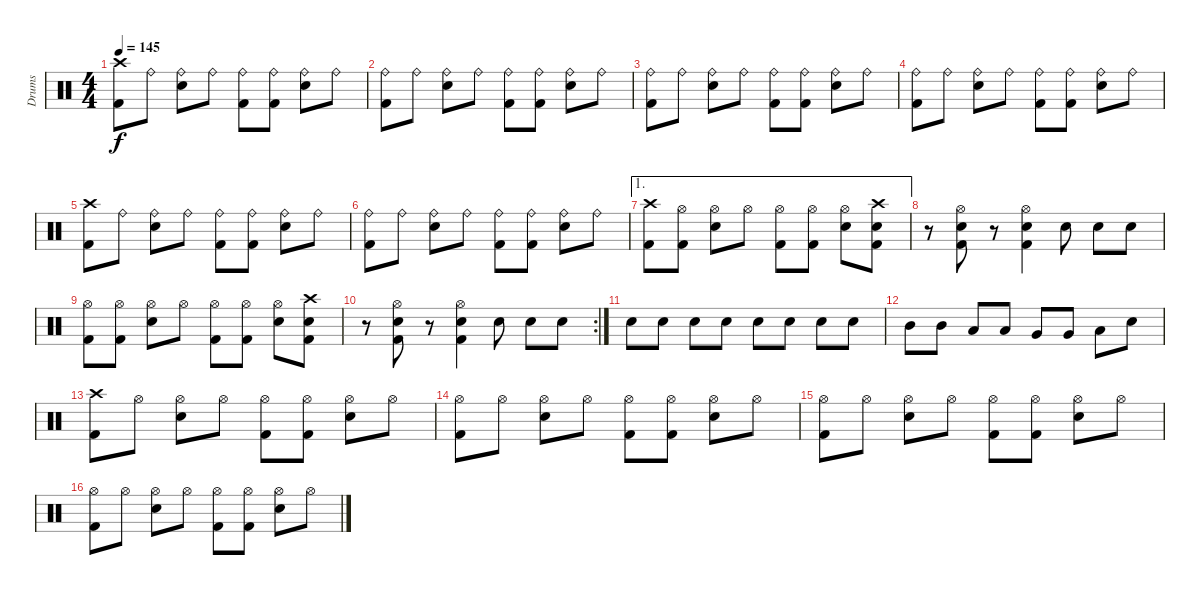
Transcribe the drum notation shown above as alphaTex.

\track ("Drums" "Drums") {instrument percussion}
\staff {score}
\articulation defaults
\ts (4 4)
\tempo 145
\clef neutral
\ks c
("Crash high (hit)" "Kick (hit) 2").8{dy f} "Ride (bell)".8 ("Ride (bell)" "Electric Snare (hit)").8 "Ride (bell)".8 ("Ride (bell)" "Kick (hit) 2").8 ("Ride (bell)" "Kick (hit) 2").8 ("Ride (bell)" "Electric Snare (hit)").8 "Ride (bell)".8 |
("Ride (bell)" "Kick (hit) 2").8 "Ride (bell)".8 ("Ride (bell)" "Electric Snare (hit)").8 "Ride (bell)".8 ("Ride (bell)" "Kick (hit) 2").8 ("Ride (bell)" "Kick (hit) 2").8 ("Ride (bell)" "Electric Snare (hit)").8 "Ride (bell)".8 |
("Ride (bell)" "Kick (hit) 2").8 "Ride (bell)".8 ("Ride (bell)" "Electric Snare (hit)").8 "Ride (bell)".8 ("Ride (bell)" "Kick (hit) 2").8 ("Ride (bell)" "Kick (hit) 2").8 ("Ride (bell)" "Electric Snare (hit)").8 "Ride (bell)".8 |
("Ride (bell)" "Kick (hit) 2").8 "Ride (bell)".8 ("Ride (bell)" "Electric Snare (hit)").8 "Ride (bell)".8 ("Ride (bell)" "Kick (hit) 2").8 ("Ride (bell)" "Kick (hit) 2").8 ("Ride (bell)" "Electric Snare (hit)").8 "Ride (bell)".8 |
("Crash high (hit)" "Kick (hit) 2").8 "Ride (bell)".8 ("Ride (bell)" "Electric Snare (hit)").8 "Ride (bell)".8 ("Ride (bell)" "Kick (hit) 2").8 ("Ride (bell)" "Kick (hit) 2").8 ("Ride (bell)" "Electric Snare (hit)").8 "Ride (bell)".8 |
("Ride (bell)" "Kick (hit) 2").8 "Ride (bell)".8 ("Ride (bell)" "Electric Snare (hit)").8 "Ride (bell)".8 ("Ride (bell)" "Kick (hit) 2").8 ("Ride (bell)" "Kick (hit) 2").8 ("Ride (bell)" "Electric Snare (hit)").8 "Ride (bell)".8 |
\ae 1
("Crash high (hit)" "Kick (hit) 2").8 ("Hi-Hat (open)" "Kick (hit) 2").8 ("Hi-Hat (open)" "Electric Snare (hit)").8 "Hi-Hat (open)".8 ("Hi-Hat (open)" "Kick (hit) 2").8 ("Hi-Hat (open)" "Kick (hit) 2").8 ("Hi-Hat (open)" "Electric Snare (hit)").8 ("Crash high (hit)" "Electric Snare (hit)" "Kick (hit) 2").8 |
r.8 ("Hi-Hat (open)" "Electric Snare (hit)" "Kick (hit) 2").8 r.8 ("Hi-Hat (open)" "Electric Snare (hit)" "Kick (hit) 2").4 "Electric Snare (hit)".8 "Electric Snare (hit)".8 "Electric Snare (hit)".8 |
("Hi-Hat (open)" "Kick (hit) 2").8 ("Hi-Hat (open)" "Kick (hit) 2").8 ("Hi-Hat (open)" "Electric Snare (hit)").8 "Hi-Hat (open)".8 ("Hi-Hat (open)" "Kick (hit) 2").8 ("Hi-Hat (open)" "Kick (hit) 2").8 ("Hi-Hat (open)" "Electric Snare (hit)").8 ("Crash high (hit)" "Electric Snare (hit)" "Kick (hit) 2").8 |
\rc 2
r.8 ("Hi-Hat (open)" "Electric Snare (hit)" "Kick (hit) 2").8 r.8 ("Hi-Hat (open)" "Electric Snare (hit)" "Kick (hit) 2").4 "Electric Snare (hit)".8 "Electric Snare (hit)".8 "Electric Snare (hit)".8 |
"Electric Snare (hit)".8 "Electric Snare (hit)".8 "Electric Snare (hit)".8 "Electric Snare (hit)".8 "Electric Snare (hit)".8 "Electric Snare (hit)".8 "Electric Snare (hit)".8 "Electric Snare (hit)".8 |
"Mid Tom (hit)".8 "Mid Tom (hit)".8 "Low Tom (hit)".8 "Low Tom (hit)".8 "Very Low Tom (hit)".8 "Very Low Tom (hit)".8 "Low Floor Tom (hit)".8 "Electric Snare (hit)".8 |
("Crash high (hit)" "Kick (hit) 2").8 "Hi-Hat (open)".8 ("Hi-Hat (open)" "Electric Snare (hit)").8 "Hi-Hat (open)".8 ("Hi-Hat (open)" "Kick (hit) 2").8 ("Hi-Hat (open)" "Kick (hit) 2").8 ("Hi-Hat (open)" "Electric Snare (hit)").8 "Hi-Hat (open)".8 |
("Hi-Hat (open)" "Kick (hit) 2").8 "Hi-Hat (open)".8 ("Hi-Hat (open)" "Electric Snare (hit)").8 "Hi-Hat (open)".8 ("Hi-Hat (open)" "Kick (hit) 2").8 ("Hi-Hat (open)" "Kick (hit) 2").8 ("Hi-Hat (open)" "Electric Snare (hit)").8 "Hi-Hat (open)".8 |
("Hi-Hat (open)" "Kick (hit) 2").8 "Hi-Hat (open)".8 ("Hi-Hat (open)" "Electric Snare (hit)").8 "Hi-Hat (open)".8 ("Hi-Hat (open)" "Kick (hit) 2").8 ("Hi-Hat (open)" "Kick (hit) 2").8 ("Hi-Hat (open)" "Electric Snare (hit)").8 "Hi-Hat (open)".8 |
("Hi-Hat (open)" "Kick (hit) 2").8 "Hi-Hat (open)".8 ("Hi-Hat (open)" "Electric Snare (hit)").8 "Hi-Hat (open)".8 ("Hi-Hat (open)" "Kick (hit) 2").8 ("Hi-Hat (open)" "Kick (hit) 2").8 ("Hi-Hat (open)" "Electric Snare (hit)").8 "Hi-Hat (open)".8
